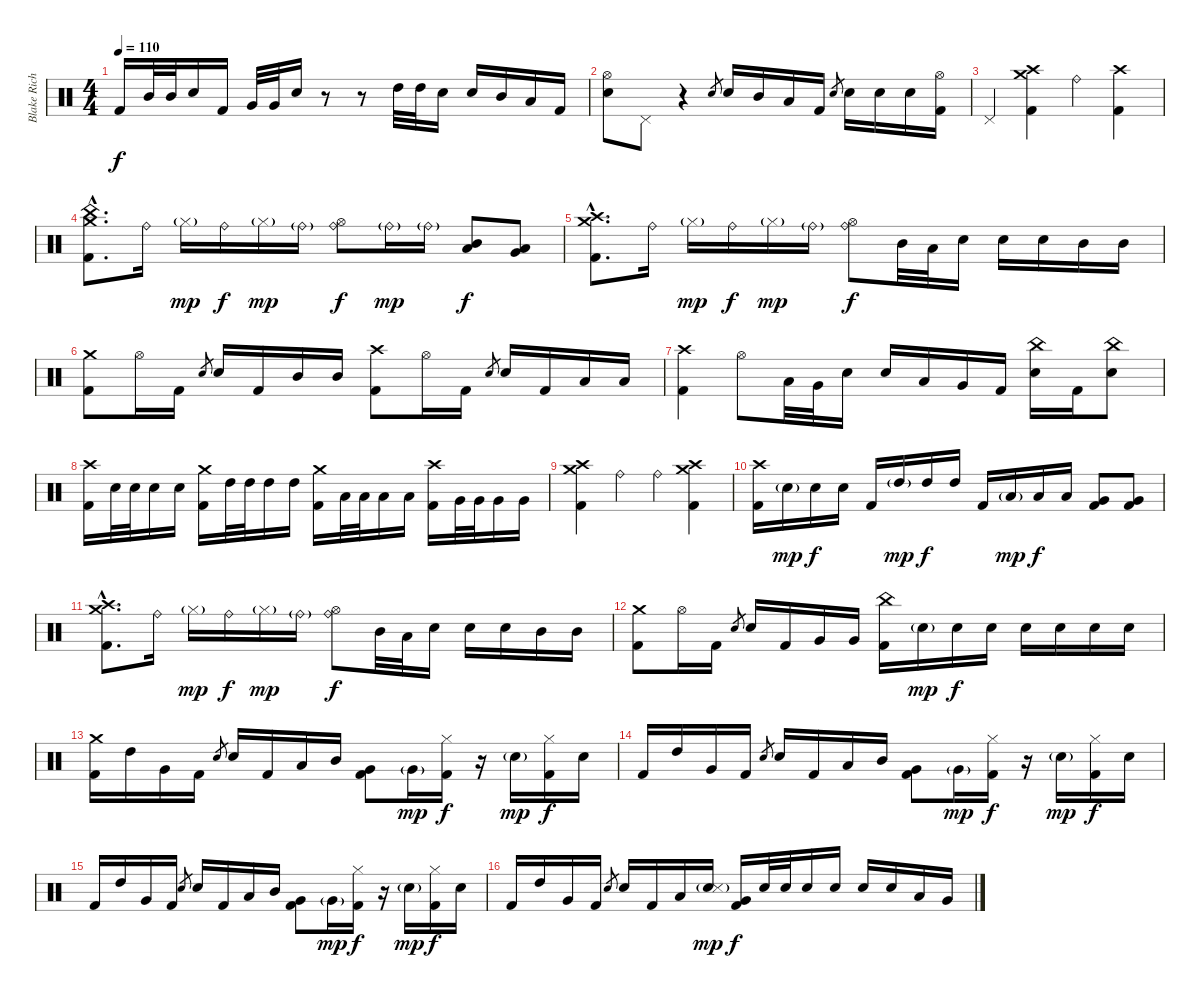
\track ("Blake Richardson - Drums" "Blake Rich") {instrument percussion}
\staff {score}
\articulation defaults
\ts (4 4)
\tempo 110
\clef neutral
\ks c "Kick (hit) 2".16{dy f} "Mid Tom (hit)".32 "Mid Tom (hit)".32 "Electric Snare (hit)".16 "Kick (hit) 2".16 "Very Low Tom (hit)".32 "Very Low Tom (hit)".32 "Electric Snare (hit)".16
r.8 r.8 "High Tom (hit)".32 "High Tom (hit)".32 "Electric Snare (hit)".16 "Electric Snare (hit)".16 "Mid Tom (hit)".16 "Low Tom (hit)".16 "Kick (hit) 2".16 |
("Hi-Hat (open)" "Electric Snare (hit)").8 "Pedal Hi-Hat (hit)".8 r.4 "Electric Snare (hit)".8{gr} "Electric Snare (hit)".16 "Mid Tom (hit)".16 "Low Tom (hit)".16 "Kick (hit) 2".16 "Electric Snare (hit)".8{gr} "Electric Snare (hit)".16 "Electric Snare (hit)".16 "Electric Snare (hit)".16 ("Hi-Hat (open)" "Kick (hit) 2").16 |
"Pedal Hi-Hat (hit)".4 ("Crash high (hit)" "Crash medium (hit)" "Kick (hit) 2").4 "Ride (bell)".4 ("Crash high (hit)" "Kick (hit) 2").4 |
("Crash medium (hit)"{hac} "China (hit)"{hac} "Kick (hit) 2"{hac}).8{d} "Ride (bell)".16 "Hi-Hat (closed)"{g}.16{dy mp} "Ride (bell)".16{dy f} "Hi-Hat (closed)"{g}.16{dy mp} "Ride (bell)"{g}.16 ("Ride (bell)" "Hi-Hat (open)").8{dy f} "Ride (bell)"{g}.16{dy mp} "Ride (bell)"{g}.16 ("Mid Tom (hit)" "Low Tom (hit)").8{dy f} ("Low Tom (hit)" "Very Low Tom (hit)").8 |
("Crash medium (hit)"{hac} "Crash high (hit)"{hac} "Kick (hit) 2"{hac}).8{d} "Ride (bell)".16 "Hi-Hat (closed)"{g}.16{dy mp} "Ride (bell)".16{dy f} "Hi-Hat (closed)"{g}.16{dy mp} "Ride (bell)"{g}.16 ("Ride (bell)" "Hi-Hat (open)").8{dy f} "Mid Tom (hit)".32 "Low Tom (hit)".32 "Electric Snare (hit)".16 "Electric Snare (hit)".16 "Electric Snare (hit)".16 "Mid Tom (hit)".16 "Mid Tom (hit)".16 |
("Crash medium (hit)" "Kick (hit) 2").8 "Hi-Hat (open)".16 "Kick (hit) 2".16 "Electric Snare (hit)".8{gr} "Electric Snare (hit)".16 "Kick (hit) 2".16 "Mid Tom (hit)".16 "Mid Tom (hit)".16 ("Crash high (hit)" "Kick (hit) 2").8 "Hi-Hat (open)".16 "Kick (hit) 2".16 "Electric Snare (hit)".8{gr} "Electric Snare (hit)".16 "Kick (hit) 2".16 "Low Tom (hit)".16 "Low Tom (hit)".16 |
("Crash high (hit)" "Kick (hit) 2").4 "Hi-Hat (open)".8 "Low Tom (hit)".32 "Very Low Tom (hit)".32 "Electric Snare (hit)".16 "Electric Snare (hit)".16 "Low Tom (hit)".16 "Very Low Tom (hit)".16 "Kick (hit) 2".16 ("China (hit)" "Electric Snare (hit)").16 "Kick (hit) 2".16 ("China (hit)" "Electric Snare (hit)").8 |
("Crash high (hit)" "Kick (hit) 2").16 "Electric Snare (hit)".32 "Electric Snare (hit)".32 "Electric Snare (hit)".16 "Electric Snare (hit)".16 ("Crash medium (hit)" "Kick (hit) 2").16 "High Tom (hit)".32 "High Tom (hit)".32 "High Tom (hit)".16 "High Tom (hit)".16 ("Crash medium (hit)" "Kick (hit) 2").16 "Low Tom (hit)".32 "Low Tom (hit)".32 "Low Tom (hit)".16 "Low Tom (hit)".16 ("Crash high (hit)" "Kick (hit) 2").16 "Very Low Tom (hit)".32 "Very Low Tom (hit)".32 "Very Low Tom (hit)".16 "Very Low Tom (hit)".16 |
("Crash high (hit)" "Crash medium (hit)" "Kick (hit) 2").4 "Ride (bell)".4 "Ride (bell)".4 ("Crash high (hit)" "Crash medium (hit)" "Kick (hit) 2").4 |
("Crash high (hit)" "Kick (hit) 2").16 "Electric Snare (hit)"{g}.16{dy mp} "Electric Snare (hit)".16{dy f} "Electric Snare (hit)".16 "Kick (hit) 2".16 "High Tom (hit)"{g}.16{dy mp} "High Tom (hit)".16{dy f} "High Tom (hit)".16 "Kick (hit) 2".16 "Low Tom (hit)"{g}.16{dy mp} "Low Tom (hit)".16{dy f} "Low Tom (hit)".16 ("Very Low Tom (hit)" "Kick (hit) 2").8 ("Very Low Tom (hit)" "Kick (hit) 2").8 |
("Crash high (hit)"{hac} "Crash medium (hit)"{hac} "Kick (hit) 2"{hac}).8{d} "Ride (bell)".16 "Hi-Hat (closed)"{g}.16{dy mp} "Ride (bell)".16{dy f} "Hi-Hat (closed)"{g}.16{dy mp} "Ride (bell)"{g}.16 ("Ride (bell)" "Hi-Hat (open)").8{dy f} "Mid Tom (hit)".32 "Low Tom (hit)".32 "Electric Snare (hit)".16 "Electric Snare (hit)".16 "Electric Snare (hit)".16 "Mid Tom (hit)".16 "Mid Tom (hit)".16 |
("Crash medium (hit)" "Kick (hit) 2").8 "Hi-Hat (open)".16 "Kick (hit) 2".16 "Electric Snare (hit)".8{gr} "Electric Snare (hit)".16 "Kick (hit) 2".16 "Very Low Tom (hit)".16 "Very Low Tom (hit)".16 ("China (hit)" "Kick (hit) 2").16 "Electric Snare (hit)"{g}.16{dy mp} "Electric Snare (hit)".16{dy f} "Electric Snare (hit)".16 "Electric Snare (hit)".16 "Electric Snare (hit)".16 "Electric Snare (hit)".16 "Electric Snare (hit)".16 |
("Crash medium (hit)" "Kick (hit) 2").16 "High Tom (hit)".16 "Very Low Tom (hit)".16 "Kick (hit) 2".16 "Electric Snare (hit)".8{gr} "Electric Snare (hit)".16 "Kick (hit) 2".16 "Low Tom (hit)".16 "Mid Tom (hit)".16 ("Very Low Tom (hit)" "Kick (hit) 2").8 "Very Low Tom (hit)"{g}.16{dy mp} ("Hi-Hat (closed)" "Kick (hit) 2").16{dy f} r.16 "Electric Snare (hit)"{g}.16{dy mp} ("Hi-Hat (closed)" "Kick (hit) 2").16{dy f} "Electric Snare (hit)".16 |
"Kick (hit) 2".16 "High Tom (hit)".16 "Very Low Tom (hit)".16 "Kick (hit) 2".16 "Electric Snare (hit)".8{gr} "Electric Snare (hit)".16 "Kick (hit) 2".16 "Low Tom (hit)".16 "Mid Tom (hit)".16 ("Very Low Tom (hit)" "Kick (hit) 2").8 "Very Low Tom (hit)"{g}.16{dy mp} ("Hi-Hat (closed)" "Kick (hit) 2").16{dy f} r.16 "Electric Snare (hit)"{g}.16{dy mp} ("Hi-Hat (closed)" "Kick (hit) 2").16{dy f} "Electric Snare (hit)".16 |
"Kick (hit) 2".16 "High Tom (hit)".16 "Very Low Tom (hit)".16 "Kick (hit) 2".16 "Electric Snare (hit)".8{gr} "Electric Snare (hit)".16 "Kick (hit) 2".16 "Low Tom (hit)".16 "Mid Tom (hit)".16 ("Very Low Tom (hit)" "Kick (hit) 2").8 "Very Low Tom (hit)"{g}.16{dy mp} ("Hi-Hat (closed)" "Kick (hit) 2").16{dy f} r.16 "Electric Snare (hit)"{g}.16{dy mp} ("Hi-Hat (closed)" "Kick (hit) 2").16{dy f} "Electric Snare (hit)".16 |
"Kick (hit) 2".16 "High Tom (hit)".16 "Very Low Tom (hit)".16 "Kick (hit) 2".16 "Electric Snare (hit)".8{gr} "Electric Snare (hit)".16 "Kick (hit) 2".16 "Low Tom (hit)".16 ("Electric Snare (hit)"{g} "Snare (side stick) 3").16{dy mp} ("Very Low Tom (hit)" "Kick (hit) 2").16{dy f} "Electric Snare (hit)".32 "Electric Snare (hit)".32 "Electric Snare (hit)".16 "Electric Snare (hit)".16 "Electric Snare (hit)".16 "Electric Snare (hit)".16 "Low Tom (hit)".16 "Very Low Tom (hit)".16
